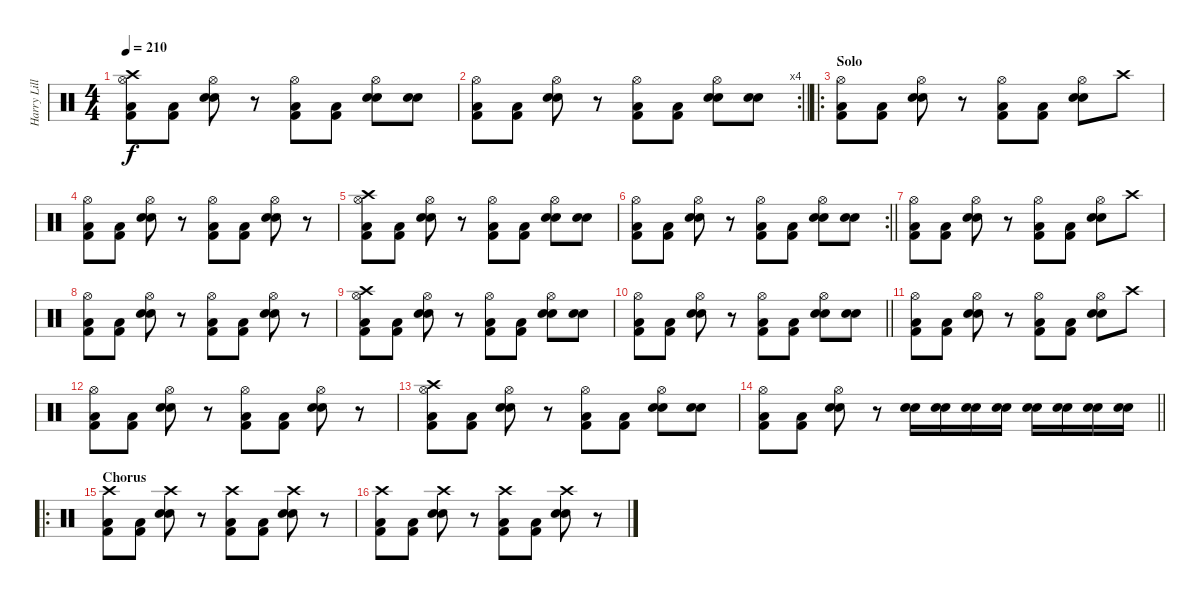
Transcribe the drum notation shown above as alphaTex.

\track ("Harry Lillevars" "Harry Lill") {instrument percussion}
\staff {score}
\articulation defaults
\ts (4 4)
\tempo 210
\clef neutral
\ks c
("Hi-Hat (open)" "Crash high (hit)" "Kick (hit) 2" "Low Floor Tom (hit)").8{dy f} ("Kick (hit) 2" "Low Floor Tom (hit)").8 ("Hi-Hat (open)" "Electric Snare (hit)" "Electric Snare (hit)").8 r.8 ("Hi-Hat (open)" "Kick (hit) 2" "Low Floor Tom (hit)").8 ("Kick (hit) 2" "Low Floor Tom (hit)").8 ("Hi-Hat (open)" "Electric Snare (hit)" "Electric Snare (hit)").8 ("Electric Snare (hit)" "Electric Snare (hit)").8 |
\rc 4
\barLineRight lightlight
("Hi-Hat (open)" "Kick (hit) 2" "Low Floor Tom (hit)").8 ("Kick (hit) 2" "Low Floor Tom (hit)").8 ("Hi-Hat (open)" "Electric Snare (hit)" "Electric Snare (hit)").8 r.8 ("Hi-Hat (open)" "Kick (hit) 2" "Low Floor Tom (hit)").8 ("Kick (hit) 2" "Low Floor Tom (hit)").8 ("Hi-Hat (open)" "Electric Snare (hit)" "Electric Snare (hit)").8 ("Electric Snare (hit)" "Electric Snare (hit)").8 |
\ro
\section ("" "Solo")
("Hi-Hat (open)" "Kick (hit) 2" "Low Floor Tom (hit)").8 ("Kick (hit) 2" "Low Floor Tom (hit)").8 ("Hi-Hat (open)" "Electric Snare (hit)" "Electric Snare (hit)").8 r.8 ("Hi-Hat (open)" "Kick (hit) 2" "Low Floor Tom (hit)").8 ("Kick (hit) 2" "Low Floor Tom (hit)").8 ("Hi-Hat (open)" "Electric Snare (hit)" "Electric Snare (hit)").8 "Crash high (hit)".8 |
("Hi-Hat (open)" "Kick (hit) 2" "Low Floor Tom (hit)").8 ("Kick (hit) 2" "Low Floor Tom (hit)").8 ("Hi-Hat (open)" "Electric Snare (hit)" "Electric Snare (hit)").8 r.8 ("Hi-Hat (open)" "Kick (hit) 2" "Low Floor Tom (hit)").8 ("Kick (hit) 2" "Low Floor Tom (hit)").8 ("Hi-Hat (open)" "Electric Snare (hit)" "Electric Snare (hit)").8 r.8 |
("Hi-Hat (open)" "Crash high (hit)" "Kick (hit) 2" "Low Floor Tom (hit)").8 ("Kick (hit) 2" "Low Floor Tom (hit)").8 ("Hi-Hat (open)" "Electric Snare (hit)" "Electric Snare (hit)").8 r.8 ("Hi-Hat (open)" "Kick (hit) 2" "Low Floor Tom (hit)").8 ("Kick (hit) 2" "Low Floor Tom (hit)").8 ("Hi-Hat (open)" "Electric Snare (hit)" "Electric Snare (hit)").8 ("Electric Snare (hit)" "Electric Snare (hit)").8 |
\rc 2
\barLineRight lightlight
("Hi-Hat (open)" "Kick (hit) 2" "Low Floor Tom (hit)").8 ("Kick (hit) 2" "Low Floor Tom (hit)").8 ("Hi-Hat (open)" "Electric Snare (hit)" "Electric Snare (hit)").8 r.8 ("Hi-Hat (open)" "Kick (hit) 2" "Low Floor Tom (hit)").8 ("Kick (hit) 2" "Low Floor Tom (hit)").8 ("Hi-Hat (open)" "Electric Snare (hit)" "Electric Snare (hit)").8 ("Electric Snare (hit)" "Electric Snare (hit)").8 |
\section ("" "")
("Hi-Hat (open)" "Kick (hit) 2" "Low Floor Tom (hit)").8 ("Kick (hit) 2" "Low Floor Tom (hit)").8 ("Hi-Hat (open)" "Electric Snare (hit)" "Electric Snare (hit)").8 r.8 ("Hi-Hat (open)" "Kick (hit) 2" "Low Floor Tom (hit)").8 ("Kick (hit) 2" "Low Floor Tom (hit)").8 ("Hi-Hat (open)" "Electric Snare (hit)" "Electric Snare (hit)").8 "Crash high (hit)".8 |
("Hi-Hat (open)" "Kick (hit) 2" "Low Floor Tom (hit)").8 ("Kick (hit) 2" "Low Floor Tom (hit)").8 ("Hi-Hat (open)" "Electric Snare (hit)" "Electric Snare (hit)").8 r.8 ("Hi-Hat (open)" "Kick (hit) 2" "Low Floor Tom (hit)").8 ("Kick (hit) 2" "Low Floor Tom (hit)").8 ("Hi-Hat (open)" "Electric Snare (hit)" "Electric Snare (hit)").8 r.8 |
("Hi-Hat (open)" "Crash high (hit)" "Kick (hit) 2" "Low Floor Tom (hit)").8 ("Kick (hit) 2" "Low Floor Tom (hit)").8 ("Hi-Hat (open)" "Electric Snare (hit)" "Electric Snare (hit)").8 r.8 ("Hi-Hat (open)" "Kick (hit) 2" "Low Floor Tom (hit)").8 ("Kick (hit) 2" "Low Floor Tom (hit)").8 ("Hi-Hat (open)" "Electric Snare (hit)" "Electric Snare (hit)").8 ("Electric Snare (hit)" "Electric Snare (hit)").8 |
\barLineRight lightlight
("Hi-Hat (open)" "Kick (hit) 2" "Low Floor Tom (hit)").8 ("Kick (hit) 2" "Low Floor Tom (hit)").8 ("Hi-Hat (open)" "Electric Snare (hit)" "Electric Snare (hit)").8 r.8 ("Hi-Hat (open)" "Kick (hit) 2" "Low Floor Tom (hit)").8 ("Kick (hit) 2" "Low Floor Tom (hit)").8 ("Hi-Hat (open)" "Electric Snare (hit)" "Electric Snare (hit)").8 ("Electric Snare (hit)" "Electric Snare (hit)").8 |
\section ("" "")
("Hi-Hat (open)" "Kick (hit) 2" "Low Floor Tom (hit)").8 ("Kick (hit) 2" "Low Floor Tom (hit)").8 ("Hi-Hat (open)" "Electric Snare (hit)" "Electric Snare (hit)").8 r.8 ("Hi-Hat (open)" "Kick (hit) 2" "Low Floor Tom (hit)").8 ("Kick (hit) 2" "Low Floor Tom (hit)").8 ("Hi-Hat (open)" "Electric Snare (hit)" "Electric Snare (hit)").8 "Crash high (hit)".8 |
("Hi-Hat (open)" "Kick (hit) 2" "Low Floor Tom (hit)").8 ("Kick (hit) 2" "Low Floor Tom (hit)").8 ("Hi-Hat (open)" "Electric Snare (hit)" "Electric Snare (hit)").8 r.8 ("Hi-Hat (open)" "Kick (hit) 2" "Low Floor Tom (hit)").8 ("Kick (hit) 2" "Low Floor Tom (hit)").8 ("Hi-Hat (open)" "Electric Snare (hit)" "Electric Snare (hit)").8 r.8 |
("Hi-Hat (open)" "Crash high (hit)" "Kick (hit) 2" "Low Floor Tom (hit)").8 ("Kick (hit) 2" "Low Floor Tom (hit)").8 ("Hi-Hat (open)" "Electric Snare (hit)" "Electric Snare (hit)").8 r.8 ("Hi-Hat (open)" "Kick (hit) 2" "Low Floor Tom (hit)").8 ("Kick (hit) 2" "Low Floor Tom (hit)").8 ("Hi-Hat (open)" "Electric Snare (hit)" "Electric Snare (hit)").8 ("Electric Snare (hit)" "Electric Snare (hit)").8 |
\barLineRight lightlight
("Hi-Hat (open)" "Kick (hit) 2" "Low Floor Tom (hit)").8 ("Kick (hit) 2" "Low Floor Tom (hit)").8 ("Hi-Hat (open)" "Electric Snare (hit)" "Electric Snare (hit)").8 r.8 ("Electric Snare (hit)" "Electric Snare (hit)").16 ("Electric Snare (hit)" "Electric Snare (hit)").16 ("Electric Snare (hit)" "Electric Snare (hit)").16 ("Electric Snare (hit)" "Electric Snare (hit)").16 ("Snare (hit) 2" "Electric Snare (hit)").16 ("Snare (hit) 2" "Electric Snare (hit)").16 ("Snare (hit) 2" "Electric Snare (hit)").16 ("Snare (hit) 2" "Electric Snare (hit)").16 |
\ro
\section ("" "Chorus")
("Crash high (hit)" "Kick (hit) 2" "Low Floor Tom (hit)").8 ("Kick (hit) 2" "Low Floor Tom (hit)").8 ("Crash high (hit)" "Electric Snare (hit)" "Electric Snare (hit)").8 r.8 ("Crash high (hit)" "Kick (hit) 2" "Low Floor Tom (hit)").8 ("Kick (hit) 2" "Low Floor Tom (hit)").8 ("Crash high (hit)" "Electric Snare (hit)" "Electric Snare (hit)").8 r.8 |
("Crash high (hit)" "Kick (hit) 2" "Low Floor Tom (hit)").8 ("Kick (hit) 2" "Low Floor Tom (hit)").8 ("Crash high (hit)" "Electric Snare (hit)" "Electric Snare (hit)").8 r.8 ("Crash high (hit)" "Kick (hit) 2" "Low Floor Tom (hit)").8 ("Kick (hit) 2" "Low Floor Tom (hit)").8 ("Crash high (hit)" "Electric Snare (hit)" "Electric Snare (hit)").8 r.8
